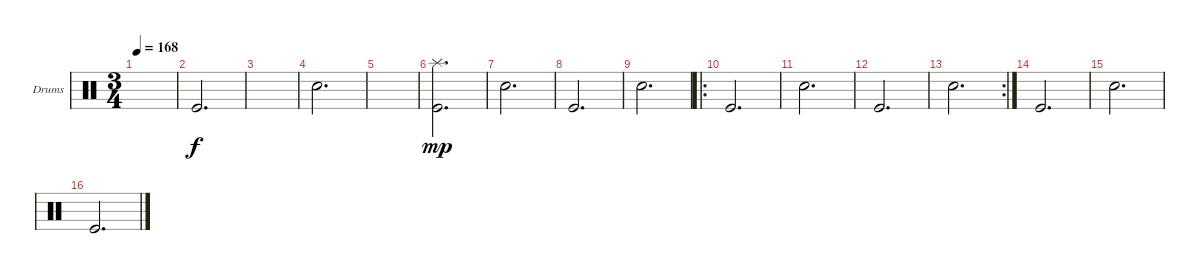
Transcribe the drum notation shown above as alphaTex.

\defaultSystemsLayout 4
\bracketExtendMode groupsimilarinstruments
\firstSystemTrackNameOrientation horizontal
\otherSystemsTrackNameOrientation horizontal
\track ("Drumkit" "Drums") {instrument percussion}
\staff {score}
\articulation defaults
\ts (3 4)
\tempo 168
\clef neutral
\ks c
|
"Kick (hit)".2{d} |
|
"Snare (hit) 2".2{d} |
|
("Kick (hit)" "Splash (hit)").2{d dy mp} |
"Snare (hit) 2".2{d} |
"Kick (hit)".2{d} |
"Snare (hit) 2".2{d} |
\ro "Kick (hit)".2{d}
|
"Snare (hit) 2".2{d} |
"Kick (hit)".2{d} |
\rc 2 "Snare (hit) 2".2{d}
|
"Kick (hit)".2{d} |
"Snare (hit) 2".2{d} |
"Kick (hit)".2{d}
